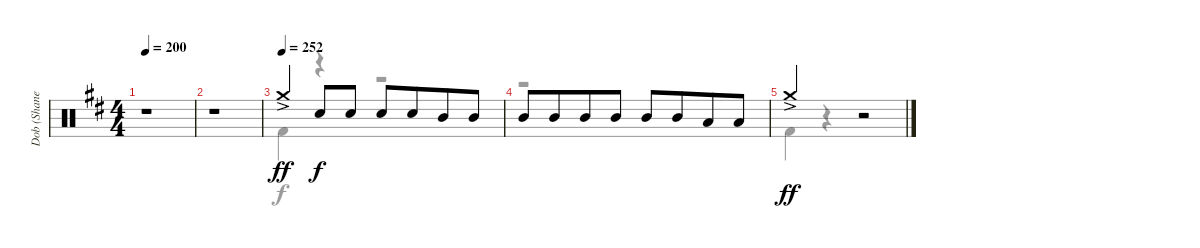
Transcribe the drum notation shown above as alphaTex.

\track ("Dob (Shane Gaalaas)" "Dob (Shane") {instrument percussion}
\staff {score}
\articulation defaults
\voice
\ts (4 4)
\tempo 200
\clef neutral
\ks d
r.1{dy f} |
r.1 |
\tempo (252)
"Crash medium (hit)"{ac}.4{dy ff} "Electric Snare (hit)".8{dy f} "Electric Snare (hit)".8 "Electric Snare (hit)".8 "Electric Snare (hit)".8{beam merge} "Mid Tom (hit)".8 "Mid Tom (hit)".8 |
"Mid Tom (hit)".8 "Mid Tom (hit)".8{beam merge} "Mid Tom (hit)".8 "Mid Tom (hit)".8 "Mid Tom (hit)".8 "Mid Tom (hit)".8{beam merge} "Low Tom (hit)".8 "Low Tom (hit)".8 |
"Crash medium (hit)"{ac}.2{dy ff} r.2 |
\voice
\clef neutral
\ottava regular
\simile none
\ks d
r.1{dy f} |
r.1 |
"Kick (hit) 2".4 r.4 r.2 |
r.1 |
"Kick (hit) 2".4 r.4 r.2 |
